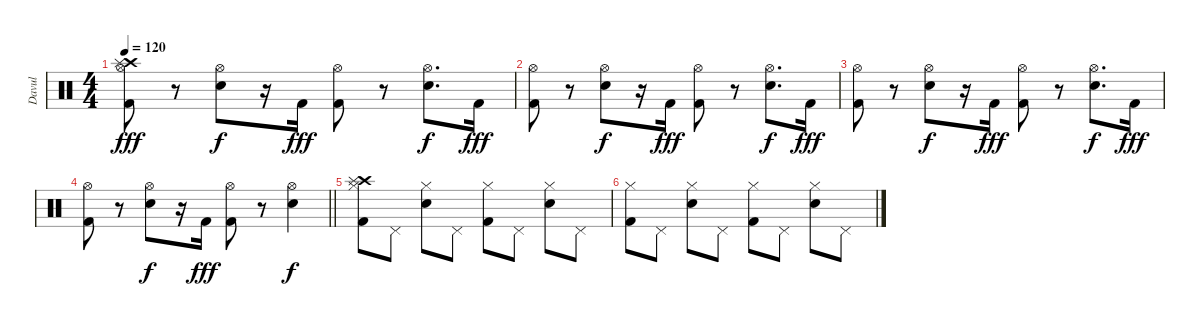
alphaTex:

\track ("Davul" "Davul") {instrument percussion}
\staff {score}
\articulation defaults
\ts (4 4)
\tempo 120
\clef neutral
\ks c
("Hi-Hat (open)" "Kick (hit) 2" "Crash high (hit)" "Splash (hit)").8{dy fff} r.8 ("Hi-Hat (open)" "Snare (hit) 2").8{dy f} r.16 "Kick (hit) 2".16{dy fff} ("Hi-Hat (open)" "Kick (hit) 2").8 r.8 ("Hi-Hat (open)" "Snare (hit) 2").8{d dy f} "Kick (hit) 2".16{dy fff} |
("Hi-Hat (open)" "Kick (hit) 2").8 r.8 ("Hi-Hat (open)" "Snare (hit) 2").8{dy f} r.16 "Kick (hit) 2".16{dy fff} ("Hi-Hat (open)" "Kick (hit) 2").8 r.8 ("Hi-Hat (open)" "Snare (hit) 2").8{d dy f} "Kick (hit) 2".16{dy fff} |
("Hi-Hat (open)" "Kick (hit) 2").8 r.8 ("Hi-Hat (open)" "Snare (hit) 2").8{dy f} r.16 "Kick (hit) 2".16{dy fff} ("Hi-Hat (open)" "Kick (hit) 2").8 r.8 ("Hi-Hat (open)" "Snare (hit) 2").8{d dy f} "Kick (hit) 2".16{dy fff} |
\barLineRight lightlight
("Hi-Hat (open)" "Kick (hit) 2").8 r.8 ("Hi-Hat (open)" "Snare (hit) 2").8{dy f} r.16 "Kick (hit) 2".16{dy fff} ("Hi-Hat (open)" "Kick (hit) 2").8 r.8 ("Hi-Hat (open)" "Snare (hit) 2").4{dy f} |
("Hi-Hat (closed)" "Kick (hit) 2" "Crash high (hit)" "Splash (hit)").8 "Pedal Hi-Hat (hit)".8 ("Hi-Hat (closed)" "Snare (hit) 2").8 "Pedal Hi-Hat (hit)".8 ("Hi-Hat (closed)" "Kick (hit) 2").8 "Pedal Hi-Hat (hit)".8 ("Hi-Hat (closed)" "Snare (hit) 2").8 "Pedal Hi-Hat (hit)".8 |
("Hi-Hat (closed)" "Kick (hit) 2").8 "Pedal Hi-Hat (hit)".8 ("Hi-Hat (closed)" "Snare (hit) 2").8 "Pedal Hi-Hat (hit)".8 ("Hi-Hat (closed)" "Kick (hit) 2").8 "Pedal Hi-Hat (hit)".8 ("Hi-Hat (closed)" "Snare (hit) 2").8 "Pedal Hi-Hat (hit)".8
